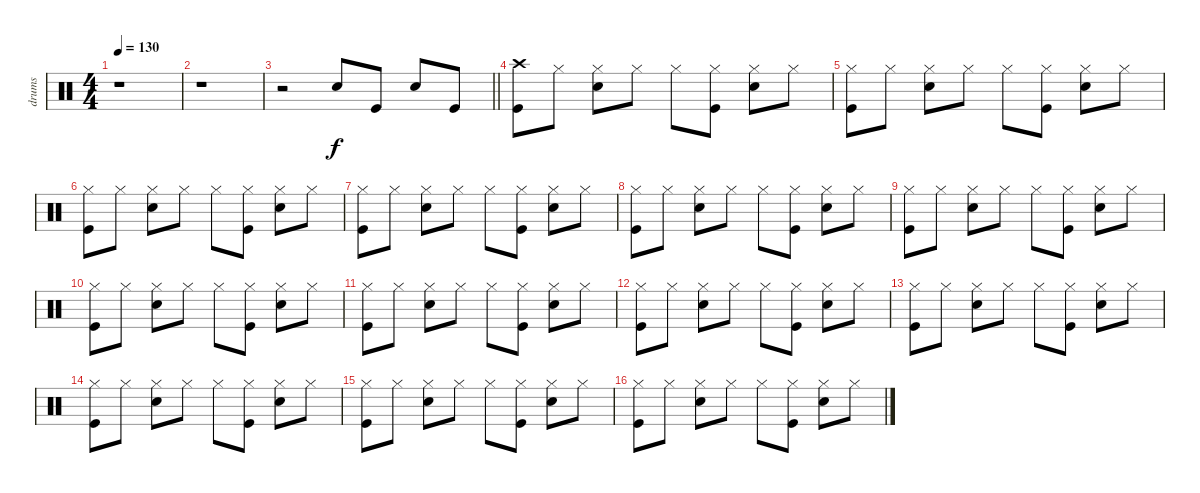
\track ("drums" "drums") {instrument percussion}
\staff {score}
\articulation defaults
\ts (4 4)
\tempo 130
\clef neutral
\ks c
r.1{dy f} |
r.1 |
\barLineRight lightlight
r.2 "Snare (hit) 2".8 "Kick (hit)".8 "Snare (hit) 2".8 "Kick (hit)".8 |
("Crash high (hit)" "Kick (hit)").8 "Hi-Hat (closed)".8 ("Hi-Hat (closed)" "Snare (hit) 2").8 "Hi-Hat (closed)".8 "Hi-Hat (closed)".8 ("Hi-Hat (closed)" "Kick (hit)").8 ("Hi-Hat (closed)" "Snare (hit) 2").8 "Hi-Hat (closed)".8 |
("Hi-Hat (closed)" "Kick (hit)").8 "Hi-Hat (closed)".8 ("Hi-Hat (closed)" "Snare (hit) 2").8 "Hi-Hat (closed)".8 "Hi-Hat (closed)".8 ("Hi-Hat (closed)" "Kick (hit)").8 ("Hi-Hat (closed)" "Snare (hit) 2").8 "Hi-Hat (closed)".8 |
("Hi-Hat (closed)" "Kick (hit)").8 "Hi-Hat (closed)".8 ("Hi-Hat (closed)" "Snare (hit) 2").8 "Hi-Hat (closed)".8 "Hi-Hat (closed)".8 ("Hi-Hat (closed)" "Kick (hit)").8 ("Hi-Hat (closed)" "Snare (hit) 2").8 "Hi-Hat (closed)".8 |
("Hi-Hat (closed)" "Kick (hit)").8 "Hi-Hat (closed)".8 ("Hi-Hat (closed)" "Snare (hit) 2").8 "Hi-Hat (closed)".8 "Hi-Hat (closed)".8 ("Hi-Hat (closed)" "Kick (hit)").8 ("Hi-Hat (closed)" "Snare (hit) 2").8 "Hi-Hat (closed)".8 |
("Hi-Hat (closed)" "Kick (hit)").8 "Hi-Hat (closed)".8 ("Hi-Hat (closed)" "Snare (hit) 2").8 "Hi-Hat (closed)".8 "Hi-Hat (closed)".8 ("Hi-Hat (closed)" "Kick (hit)").8 ("Hi-Hat (closed)" "Snare (hit) 2").8 "Hi-Hat (closed)".8 |
("Hi-Hat (closed)" "Kick (hit)").8 "Hi-Hat (closed)".8 ("Hi-Hat (closed)" "Snare (hit) 2").8 "Hi-Hat (closed)".8 "Hi-Hat (closed)".8 ("Hi-Hat (closed)" "Kick (hit)").8 ("Hi-Hat (closed)" "Snare (hit) 2").8 "Hi-Hat (closed)".8 |
("Hi-Hat (closed)" "Kick (hit)").8 "Hi-Hat (closed)".8 ("Hi-Hat (closed)" "Snare (hit) 2").8 "Hi-Hat (closed)".8 "Hi-Hat (closed)".8 ("Hi-Hat (closed)" "Kick (hit)").8 ("Hi-Hat (closed)" "Snare (hit) 2").8 "Hi-Hat (closed)".8 |
("Hi-Hat (closed)" "Kick (hit)").8 "Hi-Hat (closed)".8 ("Hi-Hat (closed)" "Snare (hit) 2").8 "Hi-Hat (closed)".8 "Hi-Hat (closed)".8 ("Hi-Hat (closed)" "Kick (hit)").8 ("Hi-Hat (closed)" "Snare (hit) 2").8 "Hi-Hat (closed)".8 |
("Hi-Hat (closed)" "Kick (hit)").8 "Hi-Hat (closed)".8 ("Hi-Hat (closed)" "Snare (hit) 2").8 "Hi-Hat (closed)".8 "Hi-Hat (closed)".8 ("Hi-Hat (closed)" "Kick (hit)").8 ("Hi-Hat (closed)" "Snare (hit) 2").8 "Hi-Hat (closed)".8 |
("Hi-Hat (closed)" "Kick (hit)").8 "Hi-Hat (closed)".8 ("Hi-Hat (closed)" "Snare (hit) 2").8 "Hi-Hat (closed)".8 "Hi-Hat (closed)".8 ("Hi-Hat (closed)" "Kick (hit)").8 ("Hi-Hat (closed)" "Snare (hit) 2").8 "Hi-Hat (closed)".8 |
("Hi-Hat (closed)" "Kick (hit)").8 "Hi-Hat (closed)".8 ("Hi-Hat (closed)" "Snare (hit) 2").8 "Hi-Hat (closed)".8 "Hi-Hat (closed)".8 ("Hi-Hat (closed)" "Kick (hit)").8 ("Hi-Hat (closed)" "Snare (hit) 2").8 "Hi-Hat (closed)".8 |
("Hi-Hat (closed)" "Kick (hit)").8 "Hi-Hat (closed)".8 ("Hi-Hat (closed)" "Snare (hit) 2").8 "Hi-Hat (closed)".8 "Hi-Hat (closed)".8 ("Hi-Hat (closed)" "Kick (hit)").8 ("Hi-Hat (closed)" "Snare (hit) 2").8 "Hi-Hat (closed)".8 |
("Hi-Hat (closed)" "Kick (hit)").8 "Hi-Hat (closed)".8 ("Hi-Hat (closed)" "Snare (hit) 2").8 "Hi-Hat (closed)".8 "Hi-Hat (closed)".8 ("Hi-Hat (closed)" "Kick (hit)").8 ("Hi-Hat (closed)" "Snare (hit) 2").8 "Hi-Hat (closed)".8
